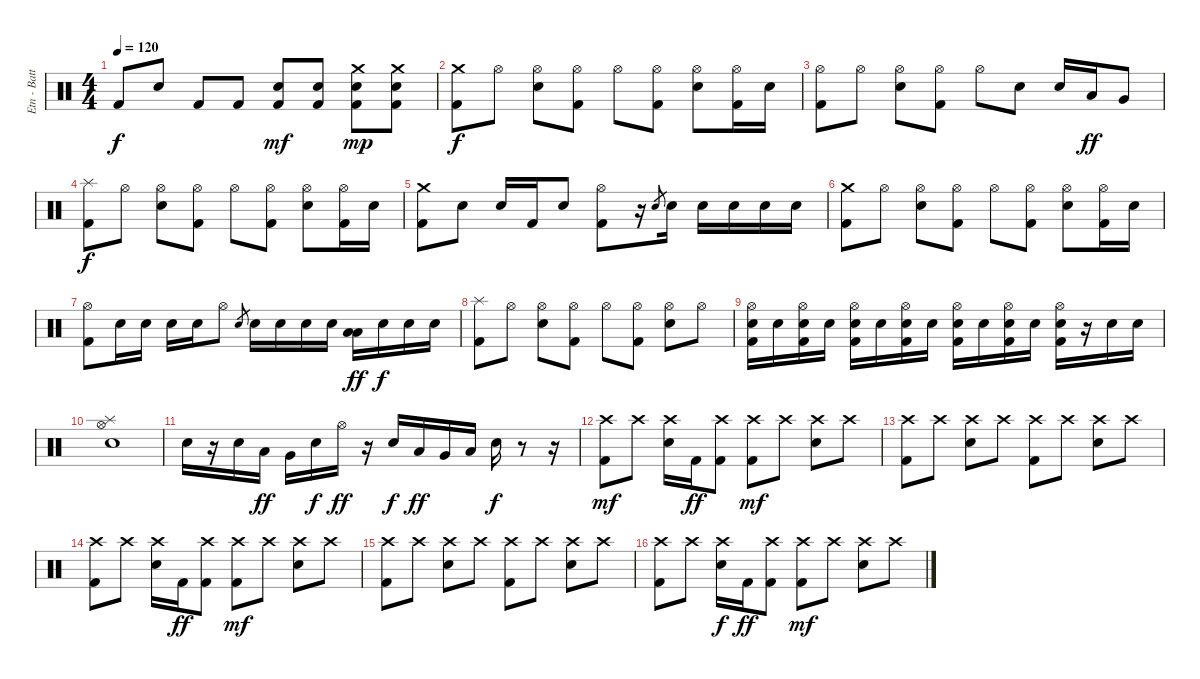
\track ("Etn - Batterie" "Etn - Batt") {instrument percussion}
\staff {score}
\articulation defaults
\ts (4 4)
\tempo 120
\clef neutral
\ks c "Kick (hit) 2".8{dy f} "Electric Snare (hit)".8 "Kick (hit) 2".8 "Kick (hit) 2".8
("Electric Snare (hit)" "Kick (hit) 2").8{dy mf} ("Electric Snare (hit)" "Kick (hit) 2").8 ("Crash medium (hit)" "Electric Snare (hit)" "Kick (hit) 2").8{dy mp} ("Crash medium (hit)" "Electric Snare (hit)" "Kick (hit) 2").8 |
("Crash medium (hit)" "Kick (hit) 2").8{dy f} "Hi-Hat (open)".8 ("Hi-Hat (open)" "Electric Snare (hit)").8 ("Hi-Hat (open)" "Kick (hit) 2").8 "Hi-Hat (open)".8 ("Hi-Hat (open)" "Kick (hit) 2").8 ("Hi-Hat (open)" "Electric Snare (hit)").8 ("Hi-Hat (open)" "Kick (hit) 2").16 "Electric Snare (hit)".16 |
("Hi-Hat (open)" "Kick (hit) 2").8 "Hi-Hat (open)".8 ("Hi-Hat (open)" "Electric Snare (hit)").8 ("Hi-Hat (open)" "Kick (hit) 2").8 "Hi-Hat (open)".8 "Electric Snare (hit)".8 "Electric Snare (hit)".16 "Low Tom (hit)".16{dy ff} "Very Low Tom (hit)".8 |
("Splash (hit)" "Kick (hit) 2").8{dy f} "Hi-Hat (open)".8 ("Hi-Hat (open)" "Electric Snare (hit)").8 ("Hi-Hat (open)" "Kick (hit) 2").8 "Hi-Hat (open)".8 ("Hi-Hat (open)" "Kick (hit) 2").8 ("Hi-Hat (open)" "Electric Snare (hit)").8 ("Hi-Hat (open)" "Kick (hit) 2").16 "Electric Snare (hit)".16 |
("Crash medium (hit)" "Kick (hit) 2").8 "Electric Snare (hit)".8 "Electric Snare (hit)".16 "Kick (hit) 2".16 "Electric Snare (hit)".8 ("Hi-Hat (open)" "Kick (hit) 2").8 r.16 "Electric Snare (hit)".8{gr} "Electric Snare (hit)".16 "Electric Snare (hit)".16 "Electric Snare (hit)".16 "Electric Snare (hit)".16 "Electric Snare (hit)".16 |
("Crash medium (hit)" "Kick (hit) 2").8 "Hi-Hat (open)".8 ("Hi-Hat (open)" "Electric Snare (hit)").8 ("Hi-Hat (open)" "Kick (hit) 2").8 "Hi-Hat (open)".8 ("Hi-Hat (open)" "Kick (hit) 2").8 ("Hi-Hat (open)" "Electric Snare (hit)").8 ("Hi-Hat (open)" "Kick (hit) 2").16 "Electric Snare (hit)".16 |
("Hi-Hat (open)" "Kick (hit) 2").8 "Electric Snare (hit)".16 "Electric Snare (hit)".16 "Electric Snare (hit)".16 "Electric Snare (hit)".16 "Hi-Hat (open)".8 "Electric Snare (hit)".8{gr} "Electric Snare (hit)".16 "Electric Snare (hit)".16 "Electric Snare (hit)".16 "Electric Snare (hit)".16 ("Low Tom (hit)" "Low Floor Tom (hit)").16{dy ff} "Electric Snare (hit)".16{dy f} "Electric Snare (hit)".16 "Electric Snare (hit)".16 |
("Splash (hit)" "Kick (hit) 2").8 "Hi-Hat (open)".8 ("Hi-Hat (open)" "Electric Snare (hit)").8 ("Hi-Hat (open)" "Kick (hit) 2").8 "Hi-Hat (open)".8 ("Hi-Hat (open)" "Kick (hit) 2").8 ("Hi-Hat (open)" "Electric Snare (hit)").8 "Hi-Hat (open)".8 |
("Hi-Hat (open)" "Electric Snare (hit)" "Kick (hit) 2").16 "Electric Snare (hit)".16 ("Hi-Hat (open)" "Electric Snare (hit)" "Kick (hit) 2").16 "Electric Snare (hit)".16 ("Hi-Hat (open)" "Electric Snare (hit)" "Kick (hit) 2").16 "Electric Snare (hit)".16 ("Hi-Hat (open)" "Electric Snare (hit)" "Kick (hit) 2").16 "Electric Snare (hit)".16 ("Hi-Hat (open)" "Electric Snare (hit)" "Kick (hit) 2").16 "Electric Snare (hit)".16 ("Hi-Hat (open)" "Electric Snare (hit)" "Kick (hit) 2").16 "Electric Snare (hit)".16 ("Hi-Hat (open)" "Electric Snare (hit)" "Kick (hit) 2").16 r.16 "Electric Snare (hit)".16 "Electric Snare (hit)".16 |
("Hi-Hat (open)" "Splash (hit)" "Electric Snare (hit)").1 |
"Electric Snare (hit)".16 r.16 "Electric Snare (hit)".16 "Low Tom (hit)".16{dy ff} "Very Low Tom (hit)".16 "Electric Snare (hit)".16{dy f} "Hi-Hat (open)".16{dy ff} r.16 "Electric Snare (hit)".16{dy f} "Low Tom (hit)".16{dy ff} "Very Low Tom (hit)".16 "Low Floor Tom (hit)".16 "Electric Snare (hit)".16{dy f} r.8 r.16 |
("Crash high (hit)" "Kick (hit) 2").8{dy mf} "Crash high (hit)".8 ("Crash high (hit)" "Electric Snare (hit)").16 "Kick (hit) 2".16{dy ff} ("Crash high (hit)" "Kick (hit) 2").8 ("Crash high (hit)" "Kick (hit) 2").8{dy mf} "Crash high (hit)".8 ("Crash high (hit)" "Electric Snare (hit)").8 "Crash high (hit)".8 |
("Crash high (hit)" "Kick (hit) 2").8 "Crash high (hit)".8 ("Crash high (hit)" "Electric Snare (hit)").8 "Crash high (hit)".8 ("Crash high (hit)" "Kick (hit) 2").8 "Crash high (hit)".8 ("Crash high (hit)" "Electric Snare (hit)").8 "Crash high (hit)".8 |
("Crash high (hit)" "Kick (hit) 2").8 "Crash high (hit)".8 ("Crash high (hit)" "Electric Snare (hit)").16 "Kick (hit) 2".16{dy ff} ("Crash high (hit)" "Kick (hit) 2").8 ("Crash high (hit)" "Kick (hit) 2").8{dy mf} "Crash high (hit)".8 ("Crash high (hit)" "Electric Snare (hit)").8 "Crash high (hit)".8 |
("Crash high (hit)" "Kick (hit) 2").8 "Crash high (hit)".8 ("Crash high (hit)" "Electric Snare (hit)").8 "Crash high (hit)".8 ("Crash high (hit)" "Kick (hit) 2").8 "Crash high (hit)".8 ("Crash high (hit)" "Electric Snare (hit)").8 "Crash high (hit)".8 |
("Crash high (hit)" "Kick (hit) 2").8 "Crash high (hit)".8 ("Crash high (hit)" "Electric Snare (hit)").16{dy f} "Kick (hit) 2".16{dy ff} ("Crash high (hit)" "Kick (hit) 2").8 ("Crash high (hit)" "Kick (hit) 2").8{dy mf} "Crash high (hit)".8 ("Crash high (hit)" "Electric Snare (hit)").8 "Crash high (hit)".8
